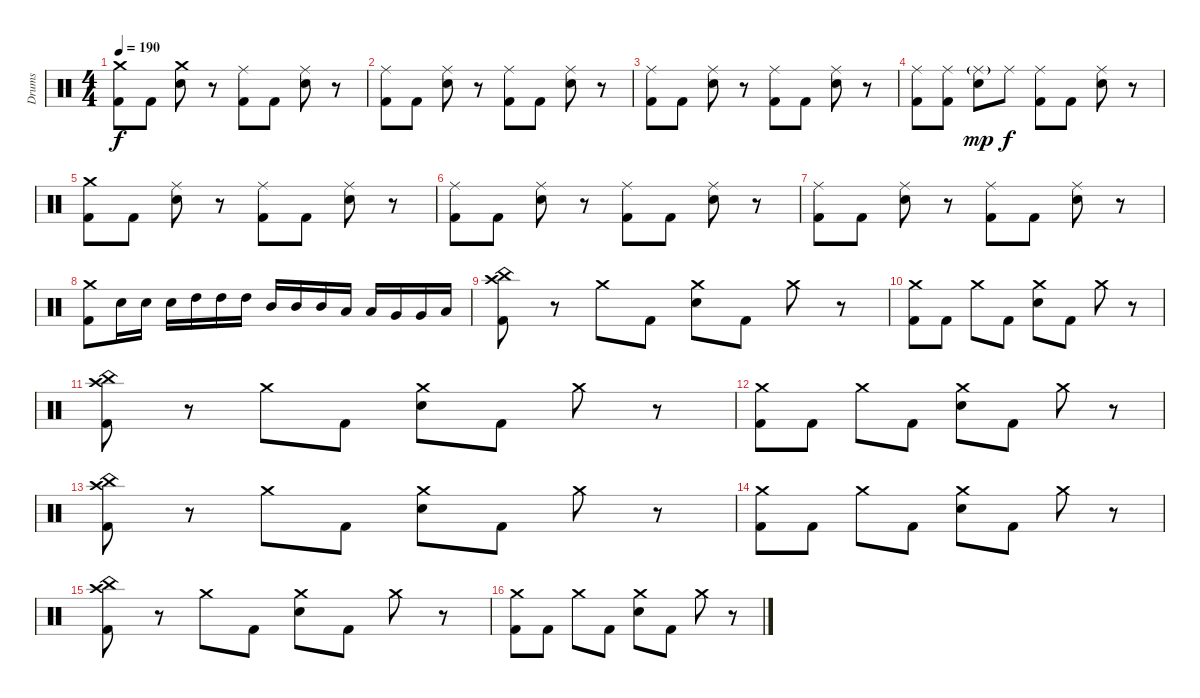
\track ("Drums" "Drums") {instrument percussion}
\staff {score}
\articulation defaults
\ts (4 4)
\tempo 190
\clef neutral
\ks c
("Crash medium (hit)" "Kick (hit) 2").8{dy f} "Kick (hit) 2".8 ("Crash medium (hit)" "Electric Snare (hit)").8 r.8 ("Ride (middle)" "Kick (hit) 2").8 "Kick (hit) 2".8 ("Ride (middle)" "Electric Snare (hit)").8 r.8 |
("Ride (middle)" "Kick (hit) 2").8 "Kick (hit) 2".8 ("Ride (middle)" "Electric Snare (hit)").8 r.8 ("Ride (middle)" "Kick (hit) 2").8 "Kick (hit) 2".8 ("Ride (middle)" "Electric Snare (hit)").8 r.8 |
("Ride (middle)" "Kick (hit) 2").8 "Kick (hit) 2".8 ("Ride (middle)" "Electric Snare (hit)").8 r.8 ("Ride (middle)" "Kick (hit) 2").8 "Kick (hit) 2".8 ("Ride (middle)" "Electric Snare (hit)").8 r.8 |
("Ride (middle)" "Kick (hit) 2").8 ("Ride (middle)" "Kick (hit) 2").8 ("Ride (middle)"{g} "Electric Snare (hit)").8{dy mp} "Ride (middle)".8{dy f} ("Ride (middle)" "Kick (hit) 2").8 "Kick (hit) 2".8 ("Ride (middle)" "Electric Snare (hit)").8 r.8 |
("Crash medium (hit)" "Kick (hit) 2").8 "Kick (hit) 2".8 ("Ride (middle)" "Electric Snare (hit)").8 r.8 ("Ride (middle)" "Kick (hit) 2").8 "Kick (hit) 2".8 ("Ride (middle)" "Electric Snare (hit)").8 r.8 |
("Ride (middle)" "Kick (hit) 2").8 "Kick (hit) 2".8 ("Ride (middle)" "Electric Snare (hit)").8 r.8 ("Ride (middle)" "Kick (hit) 2").8 "Kick (hit) 2".8 ("Ride (middle)" "Electric Snare (hit)").8 r.8 |
("Ride (middle)" "Kick (hit) 2").8 "Kick (hit) 2".8 ("Ride (middle)" "Electric Snare (hit)").8 r.8 ("Ride (middle)" "Kick (hit) 2").8 "Kick (hit) 2".8 ("Ride (middle)" "Electric Snare (hit)").8 r.8 |
("Crash medium (hit)" "Kick (hit) 2").8 "Electric Snare (hit)".16 "Electric Snare (hit)".16 "Electric Snare (hit)".16 "High Tom (hit)".16 "High Tom (hit)".16 "High Tom (hit)".16 "Mid Tom (hit)".16 "Mid Tom (hit)".16 "Mid Tom (hit)".16 "Low Tom (hit)".16 "Low Tom (hit)".16 "Very Low Tom (hit)".16 "Very Low Tom (hit)".16 "Low Floor Tom (hit)".16 |
("Crash high (hit)" "China (hit)" "Kick (hit) 2").8 r.8 "Crash medium (hit)".8 "Kick (hit) 2".8 ("Crash medium (hit)" "Electric Snare (hit)").8 "Kick (hit) 2".8 "Crash medium (hit)".8 r.8 |
("Crash medium (hit)" "Kick (hit) 2").8 "Kick (hit) 2".8 "Crash medium (hit)".8 "Kick (hit) 2".8 ("Crash medium (hit)" "Electric Snare (hit)").8 "Kick (hit) 2".8 "Crash medium (hit)".8 r.8 |
("Crash high (hit)" "China (hit)" "Kick (hit) 2").8 r.8 "Crash medium (hit)".8 "Kick (hit) 2".8 ("Crash medium (hit)" "Electric Snare (hit)").8 "Kick (hit) 2".8 "Crash medium (hit)".8 r.8 |
("Crash medium (hit)" "Kick (hit) 2").8 "Kick (hit) 2".8 "Crash medium (hit)".8 "Kick (hit) 2".8 ("Crash medium (hit)" "Electric Snare (hit)").8 "Kick (hit) 2".8 "Crash medium (hit)".8 r.8 |
("Crash high (hit)" "China (hit)" "Kick (hit) 2").8 r.8 "Crash medium (hit)".8 "Kick (hit) 2".8 ("Crash medium (hit)" "Electric Snare (hit)").8 "Kick (hit) 2".8 "Crash medium (hit)".8 r.8 |
("Crash medium (hit)" "Kick (hit) 2").8 "Kick (hit) 2".8 "Crash medium (hit)".8 "Kick (hit) 2".8 ("Crash medium (hit)" "Electric Snare (hit)").8 "Kick (hit) 2".8 "Crash medium (hit)".8 r.8 |
("Crash high (hit)" "China (hit)" "Kick (hit) 2").8 r.8 "Crash medium (hit)".8 "Kick (hit) 2".8 ("Crash medium (hit)" "Electric Snare (hit)").8 "Kick (hit) 2".8 "Crash medium (hit)".8 r.8 |
("Crash medium (hit)" "Kick (hit) 2").8 "Kick (hit) 2".8 "Crash medium (hit)".8 "Kick (hit) 2".8 ("Crash medium (hit)" "Electric Snare (hit)").8 "Kick (hit) 2".8 "Crash medium (hit)".8 r.8
